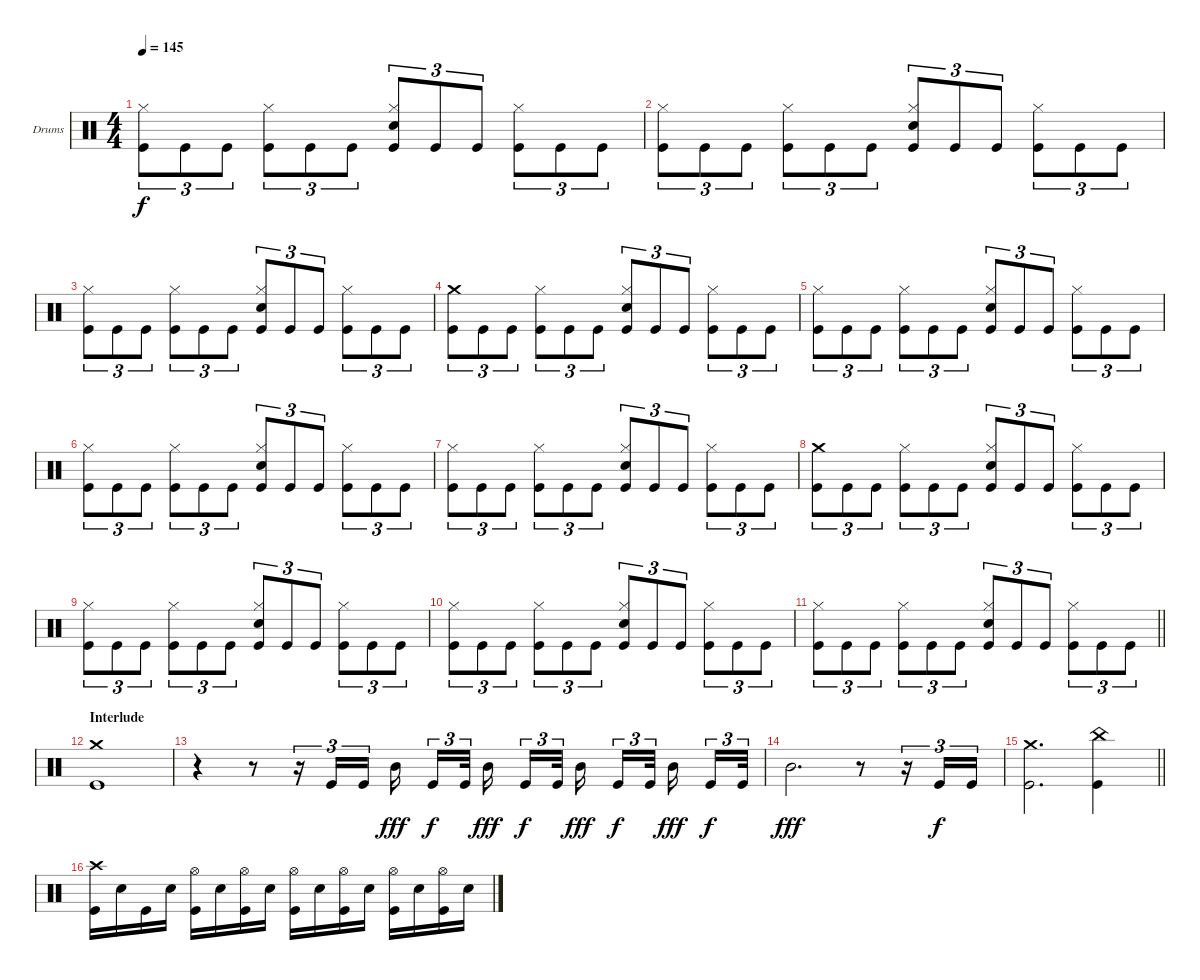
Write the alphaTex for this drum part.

\defaultSystemsLayout 4
\bracketExtendMode groupsimilarinstruments
\firstSystemTrackNameOrientation horizontal
\otherSystemsTrackNameOrientation horizontal
\track ("Drums" "Drums") {instrument percussion}
\staff {score}
\articulation defaults
\ts (4 4)
\tempo 145
\clef neutral
\ks c
("Kick (hit)" "Hi-Hat (closed)").8{tu (3 2) dy f} "Kick (hit)".8{tu (3 2)} "Kick (hit)".8{tu (3 2)} ("Kick (hit)" "Hi-Hat (closed)").8{tu (3 2)} "Kick (hit)".8{tu (3 2)} "Kick (hit)".8{tu (3 2)} ("Snare (hit) 2" "Kick (hit)" "Hi-Hat (closed)").8{tu (3 2)} "Kick (hit)".8{tu (3 2)} "Kick (hit)".8{tu (3 2)} ("Kick (hit)" "Hi-Hat (closed)").8{tu (3 2)} "Kick (hit)".8{tu (3 2)} "Kick (hit)".8{tu (3 2)} |
("Kick (hit)" "Hi-Hat (closed)").8{tu (3 2)} "Kick (hit)".8{tu (3 2)} "Kick (hit)".8{tu (3 2)} ("Kick (hit)" "Hi-Hat (closed)").8{tu (3 2)} "Kick (hit)".8{tu (3 2)} "Kick (hit)".8{tu (3 2)} ("Snare (hit) 2" "Kick (hit)" "Hi-Hat (closed)").8{tu (3 2)} "Kick (hit)".8{tu (3 2)} "Kick (hit)".8{tu (3 2)} ("Kick (hit)" "Hi-Hat (closed)").8{tu (3 2)} "Kick (hit)".8{tu (3 2)} "Kick (hit)".8{tu (3 2)} |
("Kick (hit)" "Hi-Hat (closed)").8{tu (3 2)} "Kick (hit)".8{tu (3 2)} "Kick (hit)".8{tu (3 2)} ("Kick (hit)" "Hi-Hat (closed)").8{tu (3 2)} "Kick (hit)".8{tu (3 2)} "Kick (hit)".8{tu (3 2)} ("Snare (hit) 2" "Kick (hit)" "Hi-Hat (closed)").8{tu (3 2)} "Kick (hit)".8{tu (3 2)} "Kick (hit)".8{tu (3 2)} ("Kick (hit)" "Hi-Hat (closed)").8{tu (3 2)} "Kick (hit)".8{tu (3 2)} "Kick (hit)".8{tu (3 2)} |
("Kick (hit)" "Crash medium (hit)").8{tu (3 2)} "Kick (hit)".8{tu (3 2)} "Kick (hit)".8{tu (3 2)} ("Kick (hit)" "Hi-Hat (closed)").8{tu (3 2)} "Kick (hit)".8{tu (3 2)} "Kick (hit)".8{tu (3 2)} ("Snare (hit) 2" "Kick (hit)" "Hi-Hat (closed)").8{tu (3 2)} "Kick (hit)".8{tu (3 2)} "Kick (hit)".8{tu (3 2)} ("Kick (hit)" "Hi-Hat (closed)").8{tu (3 2)} "Kick (hit)".8{tu (3 2)} "Kick (hit)".8{tu (3 2)} |
("Kick (hit)" "Hi-Hat (closed)").8{tu (3 2)} "Kick (hit)".8{tu (3 2)} "Kick (hit)".8{tu (3 2)} ("Kick (hit)" "Hi-Hat (closed)").8{tu (3 2)} "Kick (hit)".8{tu (3 2)} "Kick (hit)".8{tu (3 2)} ("Snare (hit) 2" "Kick (hit)" "Hi-Hat (closed)").8{tu (3 2)} "Kick (hit)".8{tu (3 2)} "Kick (hit)".8{tu (3 2)} ("Kick (hit)" "Hi-Hat (closed)").8{tu (3 2)} "Kick (hit)".8{tu (3 2)} "Kick (hit)".8{tu (3 2)} |
("Kick (hit)" "Hi-Hat (closed)").8{tu (3 2)} "Kick (hit)".8{tu (3 2)} "Kick (hit)".8{tu (3 2)} ("Kick (hit)" "Hi-Hat (closed)").8{tu (3 2)} "Kick (hit)".8{tu (3 2)} "Kick (hit)".8{tu (3 2)} ("Snare (hit) 2" "Kick (hit)" "Hi-Hat (closed)").8{tu (3 2)} "Kick (hit)".8{tu (3 2)} "Kick (hit)".8{tu (3 2)} ("Kick (hit)" "Hi-Hat (closed)").8{tu (3 2)} "Kick (hit)".8{tu (3 2)} "Kick (hit)".8{tu (3 2)} |
("Kick (hit)" "Hi-Hat (closed)").8{tu (3 2)} "Kick (hit)".8{tu (3 2)} "Kick (hit)".8{tu (3 2)} ("Kick (hit)" "Hi-Hat (closed)").8{tu (3 2)} "Kick (hit)".8{tu (3 2)} "Kick (hit)".8{tu (3 2)} ("Snare (hit) 2" "Kick (hit)" "Hi-Hat (closed)").8{tu (3 2)} "Kick (hit)".8{tu (3 2)} "Kick (hit)".8{tu (3 2)} ("Kick (hit)" "Hi-Hat (closed)").8{tu (3 2)} "Kick (hit)".8{tu (3 2)} "Kick (hit)".8{tu (3 2)} |
("Kick (hit)" "Crash medium (hit)").8{tu (3 2)} "Kick (hit)".8{tu (3 2)} "Kick (hit)".8{tu (3 2)} ("Kick (hit)" "Hi-Hat (closed)").8{tu (3 2)} "Kick (hit)".8{tu (3 2)} "Kick (hit)".8{tu (3 2)} ("Snare (hit) 2" "Kick (hit)" "Hi-Hat (closed)").8{tu (3 2)} "Kick (hit)".8{tu (3 2)} "Kick (hit)".8{tu (3 2)} ("Kick (hit)" "Hi-Hat (closed)").8{tu (3 2)} "Kick (hit)".8{tu (3 2)} "Kick (hit)".8{tu (3 2)} |
("Kick (hit)" "Hi-Hat (closed)").8{tu (3 2)} "Kick (hit)".8{tu (3 2)} "Kick (hit)".8{tu (3 2)} ("Kick (hit)" "Hi-Hat (closed)").8{tu (3 2)} "Kick (hit)".8{tu (3 2)} "Kick (hit)".8{tu (3 2)} ("Snare (hit) 2" "Kick (hit)" "Hi-Hat (closed)").8{tu (3 2)} "Kick (hit)".8{tu (3 2)} "Kick (hit)".8{tu (3 2)} ("Kick (hit)" "Hi-Hat (closed)").8{tu (3 2)} "Kick (hit)".8{tu (3 2)} "Kick (hit)".8{tu (3 2)} |
("Kick (hit)" "Hi-Hat (closed)").8{tu (3 2)} "Kick (hit)".8{tu (3 2)} "Kick (hit)".8{tu (3 2)} ("Kick (hit)" "Hi-Hat (closed)").8{tu (3 2)} "Kick (hit)".8{tu (3 2)} "Kick (hit)".8{tu (3 2)} ("Snare (hit) 2" "Kick (hit)" "Hi-Hat (closed)").8{tu (3 2)} "Kick (hit)".8{tu (3 2)} "Kick (hit)".8{tu (3 2)} ("Kick (hit)" "Hi-Hat (closed)").8{tu (3 2)} "Kick (hit)".8{tu (3 2)} "Kick (hit)".8{tu (3 2)} |
\barLineRight lightlight
("Kick (hit)" "Hi-Hat (closed)").8{tu (3 2)} "Kick (hit)".8{tu (3 2)} "Kick (hit)".8{tu (3 2)} ("Kick (hit)" "Hi-Hat (closed)").8{tu (3 2)} "Kick (hit)".8{tu (3 2)} "Kick (hit)".8{tu (3 2)} ("Snare (hit) 2" "Kick (hit)" "Hi-Hat (closed)").8{tu (3 2)} "Kick (hit)".8{tu (3 2)} "Kick (hit)".8{tu (3 2)} ("Kick (hit)" "Hi-Hat (closed)").8{tu (3 2)} "Kick (hit)".8{tu (3 2)} "Kick (hit)".8{tu (3 2)} |
\section ("" "Interlude")
("Crash medium (hit)" "Kick (hit)").1 |
r.4 r.8 r.16{tu (3 2)} "Kick (hit)".16{tu (3 2)} "Kick (hit)".16{tu (3 2)} "Mid Tom (hit)".16{dy fff} "Kick (hit)".16{tu (3 2) dy f} "Kick (hit)".32{tu (3 2)} "Mid Tom (hit)".16{dy fff} "Kick (hit)".16{tu (3 2) dy f} "Kick (hit)".32{tu (3 2)} "Mid Tom (hit)".16{dy fff} "Kick (hit)".16{tu (3 2) dy f} "Kick (hit)".32{tu (3 2)} "Mid Tom (hit)".16{dy fff} "Kick (hit)".16{tu (3 2) dy f} "Kick (hit)".32{tu (3 2)} |
"Mid Tom (hit)".2{d dy fff} r.8 r.16{tu (3 2)} "Kick (hit)".16{tu (3 2) dy f} "Kick (hit)".16{tu (3 2)} |
\barLineRight lightlight
("Crash medium (hit)" "Kick (hit)").2{d} ("China (hit)" "Kick (hit)").4 |
("Kick (hit)" "Crash high (hit)").16 "Snare (hit) 2".16 "Kick (hit)".16 "Snare (hit) 2".16 ("Kick (hit)" "Hi-Hat (open)").16 "Snare (hit) 2".16 ("Kick (hit)" "Hi-Hat (open)").16 "Snare (hit) 2".16 ("Kick (hit)" "Hi-Hat (open)").16 "Snare (hit) 2".16 ("Kick (hit)" "Hi-Hat (open)").16 "Snare (hit) 2".16 ("Kick (hit)" "Hi-Hat (open)").16 "Snare (hit) 2".16 ("Kick (hit)" "Hi-Hat (open)").16 "Snare (hit) 2".16
